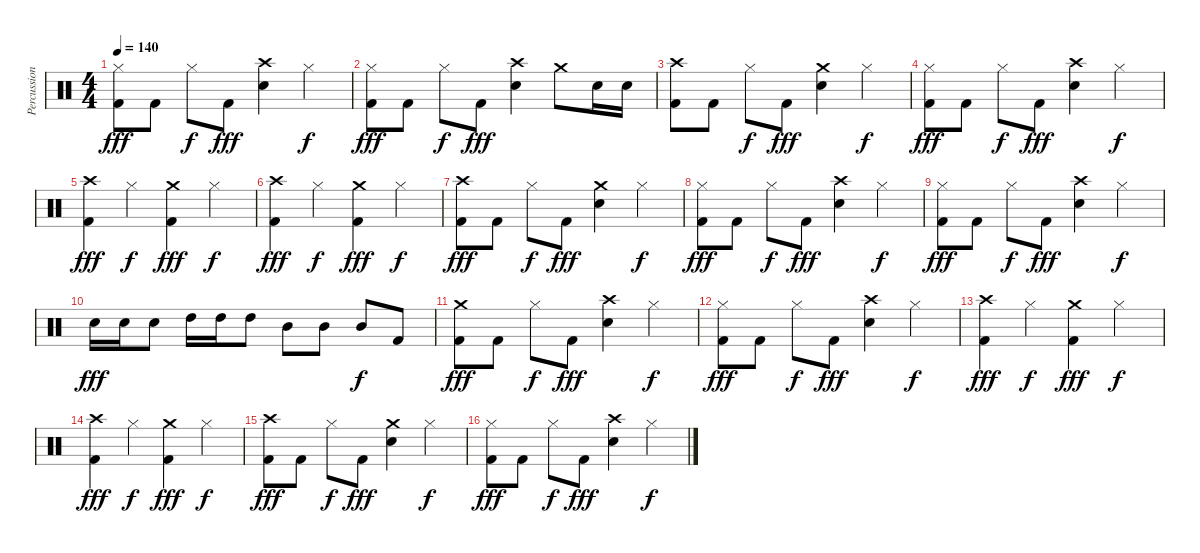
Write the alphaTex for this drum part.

\track ("Percussion" "Percussion") {instrument percussion}
\staff {score}
\articulation defaults
\ts (4 4)
\tempo 140
\clef neutral
\ks c
("Hi-Hat (closed)" "Kick (hit) 2").8{dy fff} "Kick (hit) 2".8 "Hi-Hat (closed)".8{dy f} "Kick (hit) 2".8{dy fff} ("Crash high (hit)" "Electric Snare (hit)").4 "Hi-Hat (closed)".4{dy f} |
("Hi-Hat (closed)" "Kick (hit) 2").8{dy fff} "Kick (hit) 2".8 "Hi-Hat (closed)".8{dy f} "Kick (hit) 2".8{dy fff} ("Crash high (hit)" "Electric Snare (hit)").4 "Crash medium (hit)".8 "Electric Snare (hit)".16 "Electric Snare (hit)".16 |
("Crash high (hit)" "Kick (hit) 2").8 "Kick (hit) 2".8 "Hi-Hat (closed)".8{dy f} "Kick (hit) 2".8{dy fff} ("Crash medium (hit)" "Electric Snare (hit)").4 "Hi-Hat (closed)".4{dy f} |
("Hi-Hat (closed)" "Kick (hit) 2").8{dy fff} "Kick (hit) 2".8 "Hi-Hat (closed)".8{dy f} "Kick (hit) 2".8{dy fff} ("Crash high (hit)" "Electric Snare (hit)").4 "Hi-Hat (closed)".4{dy f} |
("Crash high (hit)" "Kick (hit) 2").4{dy fff} "Hi-Hat (closed)".4{dy f} ("Crash medium (hit)" "Kick (hit) 2").4{dy fff} "Hi-Hat (closed)".4{dy f} |
("Crash high (hit)" "Kick (hit) 2").4{dy fff} "Hi-Hat (closed)".4{dy f} ("Crash medium (hit)" "Kick (hit) 2").4{dy fff} "Hi-Hat (closed)".4{dy f} |
("Crash high (hit)" "Kick (hit) 2").8{dy fff} "Kick (hit) 2".8 "Hi-Hat (closed)".8{dy f} "Kick (hit) 2".8{dy fff} ("Crash medium (hit)" "Electric Snare (hit)").4 "Hi-Hat (closed)".4{dy f} |
("Hi-Hat (closed)" "Kick (hit) 2").8{dy fff} "Kick (hit) 2".8 "Hi-Hat (closed)".8{dy f} "Kick (hit) 2".8{dy fff} ("Crash high (hit)" "Electric Snare (hit)").4 "Hi-Hat (closed)".4{dy f} |
("Hi-Hat (closed)" "Kick (hit) 2").8{dy fff} "Kick (hit) 2".8 "Hi-Hat (closed)".8{dy f} "Kick (hit) 2".8{dy fff} ("Crash high (hit)" "Electric Snare (hit)").4 "Hi-Hat (closed)".4{dy f} |
"Electric Snare (hit)".16{dy fff} "Electric Snare (hit)".16 "Electric Snare (hit)".8 "High Tom (hit)".16 "High Tom (hit)".16 "High Tom (hit)".8 "Mid Tom (hit)".8 "Mid Tom (hit)".8 "Mid Tom (hit)".8{dy f} "Kick (hit) 2".8 |
("Crash medium (hit)" "Kick (hit) 2").8{dy fff} "Kick (hit) 2".8 "Hi-Hat (closed)".8{dy f} "Kick (hit) 2".8{dy fff} ("Crash high (hit)" "Electric Snare (hit)").4 "Hi-Hat (closed)".4{dy f} |
("Hi-Hat (closed)" "Kick (hit) 2").8{dy fff} "Kick (hit) 2".8 "Hi-Hat (closed)".8{dy f} "Kick (hit) 2".8{dy fff} ("Crash high (hit)" "Electric Snare (hit)").4 "Hi-Hat (closed)".4{dy f} |
("Crash high (hit)" "Kick (hit) 2").4{dy fff} "Hi-Hat (closed)".4{dy f} ("Crash medium (hit)" "Kick (hit) 2").4{dy fff} "Hi-Hat (closed)".4{dy f} |
("Crash high (hit)" "Kick (hit) 2").4{dy fff} "Hi-Hat (closed)".4{dy f} ("Crash medium (hit)" "Kick (hit) 2").4{dy fff} "Hi-Hat (closed)".4{dy f} |
("Crash high (hit)" "Kick (hit) 2").8{dy fff} "Kick (hit) 2".8 "Hi-Hat (closed)".8{dy f} "Kick (hit) 2".8{dy fff} ("Crash medium (hit)" "Electric Snare (hit)").4 "Hi-Hat (closed)".4{dy f} |
("Hi-Hat (closed)" "Kick (hit) 2").8{dy fff} "Kick (hit) 2".8 "Hi-Hat (closed)".8{dy f} "Kick (hit) 2".8{dy fff} ("Crash high (hit)" "Electric Snare (hit)").4 "Hi-Hat (closed)".4{dy f}
